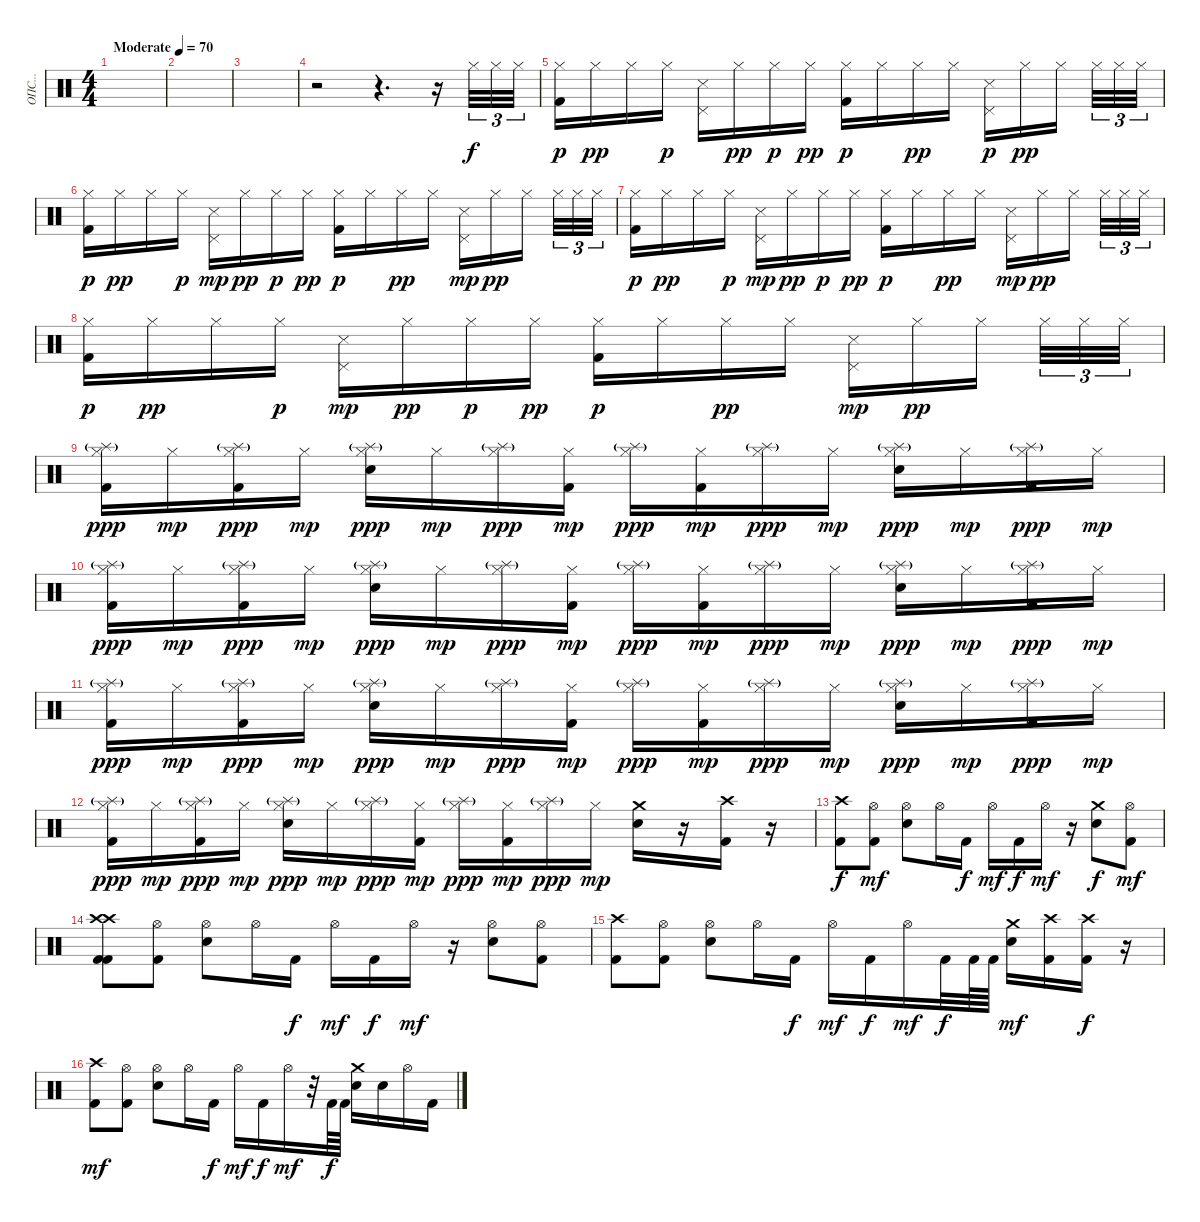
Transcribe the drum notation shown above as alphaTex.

\track ("ОПС..." "ОПС...") {instrument percussion}
\staff {score}
\articulation defaults
\ts (4 4)
\tempo (70 "Moderate")
\clef neutral
\ks c
|
|
|
r.2 r.4{d} r.16 "Hi-Hat (closed)".32{tu (3 2)} "Hi-Hat (closed)".32{tu (3 2)} "Hi-Hat (closed)".32{tu (3 2)} |
("Hi-Hat (closed)" "Kick (hit) 2").16{dy p} "Hi-Hat (closed)".16{dy pp} "Hi-Hat (closed)".16 "Hi-Hat (closed)".16{dy p} ("Pedal Hi-Hat (hit)" "Snare (side stick) 3").16 "Hi-Hat (closed)".16{dy pp} "Hi-Hat (closed)".16{dy p} "Hi-Hat (closed)".16{dy pp} ("Hi-Hat (closed)" "Kick (hit) 2").16{dy p} "Hi-Hat (closed)".16 "Hi-Hat (closed)".16{dy pp} "Hi-Hat (closed)".16 ("Pedal Hi-Hat (hit)" "Snare (side stick) 3").16{dy p} "Hi-Hat (closed)".16{dy pp} "Hi-Hat (closed)".16{beam splitsecondary} "Hi-Hat (closed)".32{tu (3 2)} "Hi-Hat (closed)".32{tu (3 2)} "Hi-Hat (closed)".32{tu (3 2)} |
("Hi-Hat (closed)" "Kick (hit) 2").16{dy p} "Hi-Hat (closed)".16{dy pp} "Hi-Hat (closed)".16 "Hi-Hat (closed)".16{dy p} ("Pedal Hi-Hat (hit)" "Snare (side stick) 3").16{dy mp} "Hi-Hat (closed)".16{dy pp} "Hi-Hat (closed)".16{dy p} "Hi-Hat (closed)".16{dy pp} ("Hi-Hat (closed)" "Kick (hit) 2").16{dy p} "Hi-Hat (closed)".16 "Hi-Hat (closed)".16{dy pp} "Hi-Hat (closed)".16 ("Pedal Hi-Hat (hit)" "Snare (side stick) 3").16{dy mp} "Hi-Hat (closed)".16{dy pp} "Hi-Hat (closed)".16{beam splitsecondary} "Hi-Hat (closed)".32{tu (3 2)} "Hi-Hat (closed)".32{tu (3 2)} "Hi-Hat (closed)".32{tu (3 2)} |
("Hi-Hat (closed)" "Kick (hit) 2").16{dy p} "Hi-Hat (closed)".16{dy pp} "Hi-Hat (closed)".16 "Hi-Hat (closed)".16{dy p} ("Pedal Hi-Hat (hit)" "Snare (side stick) 3").16{dy mp} "Hi-Hat (closed)".16{dy pp} "Hi-Hat (closed)".16{dy p} "Hi-Hat (closed)".16{dy pp} ("Hi-Hat (closed)" "Kick (hit) 2").16{dy p} "Hi-Hat (closed)".16 "Hi-Hat (closed)".16{dy pp} "Hi-Hat (closed)".16 ("Pedal Hi-Hat (hit)" "Snare (side stick) 3").16{dy mp} "Hi-Hat (closed)".16{dy pp} "Hi-Hat (closed)".16{beam splitsecondary} "Hi-Hat (closed)".32{tu (3 2)} "Hi-Hat (closed)".32{tu (3 2)} "Hi-Hat (closed)".32{tu (3 2)} |
("Hi-Hat (closed)" "Kick (hit) 2").16{dy p} "Hi-Hat (closed)".16{dy pp} "Hi-Hat (closed)".16 "Hi-Hat (closed)".16{dy p} ("Pedal Hi-Hat (hit)" "Snare (side stick) 3").16{dy mp} "Hi-Hat (closed)".16{dy pp} "Hi-Hat (closed)".16{dy p} "Hi-Hat (closed)".16{dy pp} ("Hi-Hat (closed)" "Kick (hit) 2").16{dy p} "Hi-Hat (closed)".16 "Hi-Hat (closed)".16{dy pp} "Hi-Hat (closed)".16 ("Pedal Hi-Hat (hit)" "Snare (side stick) 3").16{dy mp} "Hi-Hat (closed)".16{dy pp} "Hi-Hat (closed)".16{beam splitsecondary} "Hi-Hat (closed)".32{tu (3 2)} "Hi-Hat (closed)".32{tu (3 2)} "Hi-Hat (closed)".32{tu (3 2)} |
("Kick (hit) 2" "Hi-Hat (closed)" "Splash (hit)"{g}).16{dy ppp} "Hi-Hat (closed)".16{dy mp} ("Kick (hit) 2" "Hi-Hat (closed)" "Splash (hit)"{g}).16{dy ppp} "Hi-Hat (closed)".16{dy mp} ("Snare (hit) 2" "Hi-Hat (closed)" "Splash (hit)"{g}).16{dy ppp} "Hi-Hat (closed)".16{dy mp} ("Hi-Hat (closed)" "Splash (hit)"{g}).16{dy ppp} ("Kick (hit) 2" "Hi-Hat (closed)").16{dy mp} ("Hi-Hat (closed)" "Splash (hit)"{g}).16{dy ppp} ("Kick (hit) 2" "Hi-Hat (closed)").16{dy mp} ("Hi-Hat (closed)" "Splash (hit)"{g}).16{dy ppp} "Hi-Hat (closed)".16{dy mp} ("Snare (hit) 2" "Hi-Hat (closed)" "Splash (hit)"{g}).16{dy ppp} "Hi-Hat (closed)".16{dy mp} ("Kick (hit) 2" "Hi-Hat (closed)" "Splash (hit)"{g}).16{dy ppp} "Hi-Hat (closed)".16{dy mp} |
("Kick (hit) 2" "Hi-Hat (closed)" "Splash (hit)"{g}).16{dy ppp} "Hi-Hat (closed)".16{dy mp} ("Kick (hit) 2" "Hi-Hat (closed)" "Splash (hit)"{g}).16{dy ppp} "Hi-Hat (closed)".16{dy mp} ("Snare (hit) 2" "Hi-Hat (closed)" "Splash (hit)"{g}).16{dy ppp} "Hi-Hat (closed)".16{dy mp} ("Hi-Hat (closed)" "Splash (hit)"{g}).16{dy ppp} ("Kick (hit) 2" "Hi-Hat (closed)").16{dy mp} ("Hi-Hat (closed)" "Splash (hit)"{g}).16{dy ppp} ("Kick (hit) 2" "Hi-Hat (closed)").16{dy mp} ("Hi-Hat (closed)" "Splash (hit)"{g}).16{dy ppp} "Hi-Hat (closed)".16{dy mp} ("Snare (hit) 2" "Hi-Hat (closed)" "Splash (hit)"{g}).16{dy ppp} "Hi-Hat (closed)".16{dy mp} ("Kick (hit) 2" "Hi-Hat (closed)" "Splash (hit)"{g}).16{dy ppp} "Hi-Hat (closed)".16{dy mp} |
("Kick (hit) 2" "Hi-Hat (closed)" "Splash (hit)"{g}).16{dy ppp} "Hi-Hat (closed)".16{dy mp} ("Kick (hit) 2" "Hi-Hat (closed)" "Splash (hit)"{g}).16{dy ppp} "Hi-Hat (closed)".16{dy mp} ("Snare (hit) 2" "Hi-Hat (closed)" "Splash (hit)"{g}).16{dy ppp} "Hi-Hat (closed)".16{dy mp} ("Hi-Hat (closed)" "Splash (hit)"{g}).16{dy ppp} ("Kick (hit) 2" "Hi-Hat (closed)").16{dy mp} ("Hi-Hat (closed)" "Splash (hit)"{g}).16{dy ppp} ("Kick (hit) 2" "Hi-Hat (closed)").16{dy mp} ("Hi-Hat (closed)" "Splash (hit)"{g}).16{dy ppp} "Hi-Hat (closed)".16{dy mp} ("Snare (hit) 2" "Hi-Hat (closed)" "Splash (hit)"{g}).16{dy ppp} "Hi-Hat (closed)".16{dy mp} ("Kick (hit) 2" "Hi-Hat (closed)" "Splash (hit)"{g}).16{dy ppp} "Hi-Hat (closed)".16{dy mp} |
("Kick (hit) 2" "Hi-Hat (closed)" "Splash (hit)"{g}).16{dy ppp} "Hi-Hat (closed)".16{dy mp} ("Kick (hit) 2" "Hi-Hat (closed)" "Splash (hit)"{g}).16{dy ppp} "Hi-Hat (closed)".16{dy mp} ("Snare (hit) 2" "Hi-Hat (closed)" "Splash (hit)"{g}).16{dy ppp} "Hi-Hat (closed)".16{dy mp} ("Hi-Hat (closed)" "Splash (hit)"{g}).16{dy ppp} ("Kick (hit) 2" "Hi-Hat (closed)").16{dy mp} ("Hi-Hat (closed)" "Splash (hit)"{g}).16{dy ppp} ("Kick (hit) 2" "Hi-Hat (closed)").16{dy mp} ("Hi-Hat (closed)" "Splash (hit)"{g}).16{dy ppp} "Hi-Hat (closed)".16{dy mp} ("Snare (hit) 2" "Crash medium (hit)").16 r.16 ("Kick (hit) 2" "Crash high (hit)").16 r.16 |
("Kick (hit) 2" "Crash high (hit)").8{dy f} ("Kick (hit) 2" "Hi-Hat (open)").8{dy mf} ("Snare (hit) 2" "Hi-Hat (open)").8 "Hi-Hat (open)".16 "Kick (hit) 2".16{dy f} "Hi-Hat (open)".16{dy mf} "Kick (hit) 2".16{dy f} "Hi-Hat (open)".16{dy mf} r.16 ("Snare (hit) 2" "Crash medium (hit)").8{dy f} ("Kick (hit) 2" "Hi-Hat (open)").8{dy mf} |
("Kick (hit) 2" "Kick (hit) 2" "Crash high (hit)" "Crash high (hit)").8 ("Kick (hit) 2" "Hi-Hat (open)").8 ("Snare (hit) 2" "Hi-Hat (open)").8 "Hi-Hat (open)".16 "Kick (hit) 2".16{dy f} "Hi-Hat (open)".16{dy mf} "Kick (hit) 2".16{dy f} "Hi-Hat (open)".16{dy mf} r.16 ("Snare (hit) 2" "Hi-Hat (open)").8 ("Kick (hit) 2" "Hi-Hat (open)").8 |
("Kick (hit) 2" "Crash high (hit)").8 ("Kick (hit) 2" "Hi-Hat (open)").8 ("Snare (hit) 2" "Hi-Hat (open)").8 "Hi-Hat (open)".16 "Kick (hit) 2".16{dy f} "Hi-Hat (open)".16{dy mf} "Kick (hit) 2".16{dy f} "Hi-Hat (open)".16{dy mf} "Kick (hit) 2".32{dy f} "Kick (hit) 2".64 "Kick (hit) 2".64 ("Snare (hit) 2" "Crash medium (hit)").16{dy mf} ("Kick (hit) 2" "Crash high (hit)").16 ("Kick (hit) 2" "Crash high (hit)").16{dy f} r.16 |
("Kick (hit) 2" "Crash high (hit)").8{dy mf balance 8} ("Kick (hit) 2" "Hi-Hat (open)").8 ("Snare (hit) 2" "Hi-Hat (open)").8 "Hi-Hat (open)".16 "Kick (hit) 2".16{dy f} "Hi-Hat (open)".16{dy mf} "Kick (hit) 2".16{dy f} "Hi-Hat (open)".16{dy mf} r.32 "Kick (hit) 2".64{dy f} "Kick (hit) 2".64 ("Snare (hit) 2" "Crash medium (hit)").16 "Snare (hit) 2".16 "Hi-Hat (open)".16 "Kick (hit) 2".16
